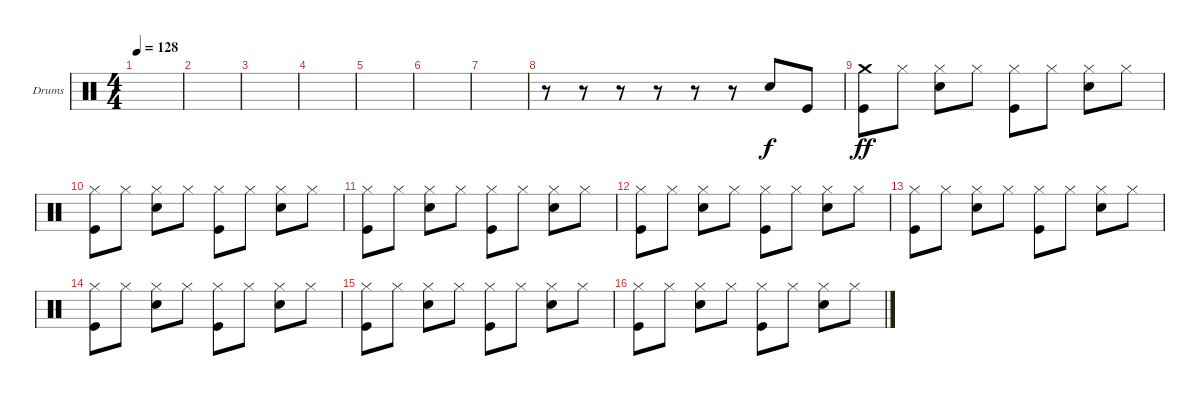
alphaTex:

\defaultSystemsLayout 4
\bracketExtendMode groupsimilarinstruments
\firstSystemTrackNameOrientation horizontal
\otherSystemsTrackNameOrientation horizontal
\track ("Drums" "Drums") {instrument percussion}
\staff {score}
\articulation defaults
\ts (4 4)
\tempo 128
\clef neutral
\scale
0.472222
\ks c
|
|
|
|
|
|
|
r.8 r.8 r.8 r.8 r.8 r.8 "Snare (hit) 2".8 "Kick (hit)".8 |
("Kick (hit)" "Crash medium (hit)").8{dy ff} "Hi-Hat (closed)".8 ("Snare (hit) 2" "Hi-Hat (closed)").8 "Hi-Hat (closed)".8 ("Kick (hit)" "Hi-Hat (closed)").8 "Hi-Hat (closed)".8 ("Snare (hit) 2" "Hi-Hat (closed)").8 "Hi-Hat (closed)".8 |
("Kick (hit)" "Hi-Hat (closed)").8 "Hi-Hat (closed)".8 ("Snare (hit) 2" "Hi-Hat (closed)").8 "Hi-Hat (closed)".8 ("Hi-Hat (closed)" "Kick (hit)").8 "Hi-Hat (closed)".8 ("Snare (hit) 2" "Hi-Hat (closed)").8 "Hi-Hat (closed)".8 |
("Kick (hit)" "Hi-Hat (closed)").8 "Hi-Hat (closed)".8 ("Snare (hit) 2" "Hi-Hat (closed)").8 "Hi-Hat (closed)".8 ("Kick (hit)" "Hi-Hat (closed)").8 "Hi-Hat (closed)".8 ("Snare (hit) 2" "Hi-Hat (closed)").8 "Hi-Hat (closed)".8 |
("Kick (hit)" "Hi-Hat (closed)").8 "Hi-Hat (closed)".8 ("Snare (hit) 2" "Hi-Hat (closed)").8 "Hi-Hat (closed)".8 ("Hi-Hat (closed)" "Kick (hit)").8 "Hi-Hat (closed)".8 ("Snare (hit) 2" "Hi-Hat (closed)").8 "Hi-Hat (closed)".8 |
("Kick (hit)" "Hi-Hat (closed)").8 "Hi-Hat (closed)".8 ("Snare (hit) 2" "Hi-Hat (closed)").8 "Hi-Hat (closed)".8 ("Kick (hit)" "Hi-Hat (closed)").8 "Hi-Hat (closed)".8 ("Snare (hit) 2" "Hi-Hat (closed)").8 "Hi-Hat (closed)".8 |
("Kick (hit)" "Hi-Hat (closed)").8 "Hi-Hat (closed)".8 ("Snare (hit) 2" "Hi-Hat (closed)").8 "Hi-Hat (closed)".8 ("Hi-Hat (closed)" "Kick (hit)").8 "Hi-Hat (closed)".8 ("Snare (hit) 2" "Hi-Hat (closed)").8 "Hi-Hat (closed)".8 |
("Kick (hit)" "Hi-Hat (closed)").8 "Hi-Hat (closed)".8 ("Snare (hit) 2" "Hi-Hat (closed)").8 "Hi-Hat (closed)".8 ("Kick (hit)" "Hi-Hat (closed)").8 "Hi-Hat (closed)".8 ("Snare (hit) 2" "Hi-Hat (closed)").8 "Hi-Hat (closed)".8 |
("Kick (hit)" "Hi-Hat (closed)").8 "Hi-Hat (closed)".8 ("Snare (hit) 2" "Hi-Hat (closed)").8 "Hi-Hat (closed)".8 ("Hi-Hat (closed)" "Kick (hit)").8 "Hi-Hat (closed)".8 ("Snare (hit) 2" "Hi-Hat (closed)").8 "Hi-Hat (closed)".8
